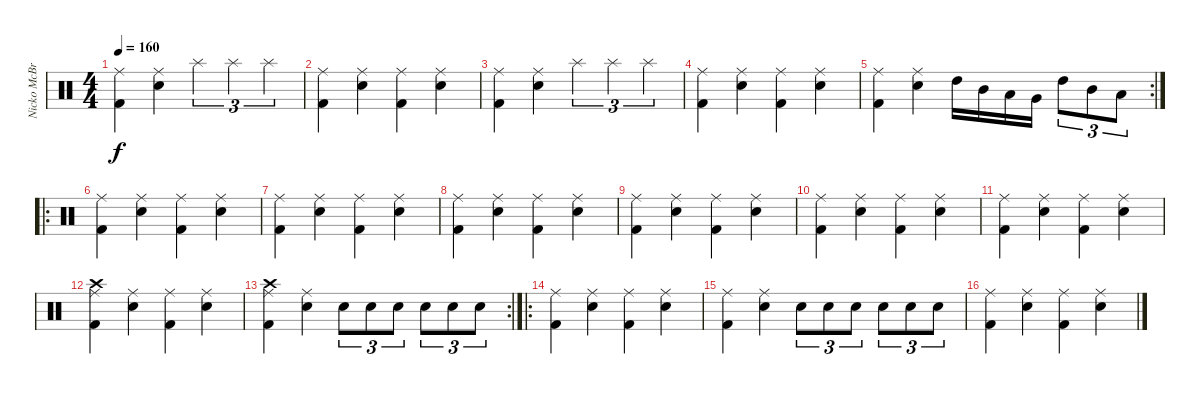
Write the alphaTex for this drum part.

\track ("Nicko McBrain" "Nicko McBr") {instrument percussion}
\staff {score}
\articulation defaults
\ts (4 4)
\tempo 160
\clef neutral
\ks c
("Ride (middle)" "Kick (hit) 2").4{dy f} ("Ride (middle)" "Snare (hit) 2").4 "Splash (hit)".4{tu (3 2)} "Splash (hit)".4{tu (3 2)} "Splash (hit)".4{tu (3 2)} |
("Ride (middle)" "Kick (hit) 2").4 ("Ride (middle)" "Snare (hit) 2").4 ("Ride (middle)" "Kick (hit) 2").4 ("Ride (middle)" "Snare (hit) 2").4 |
("Ride (middle)" "Kick (hit) 2").4 ("Ride (middle)" "Snare (hit) 2").4 "Splash (hit)".4{tu (3 2)} "Splash (hit)".4{tu (3 2)} "Splash (hit)".4{tu (3 2)} |
("Ride (middle)" "Kick (hit) 2").4 ("Ride (middle)" "Snare (hit) 2").4 ("Ride (middle)" "Kick (hit) 2").4 ("Ride (middle)" "Snare (hit) 2").4 |
\rc 2
("Ride (middle)" "Kick (hit) 2").4 ("Ride (middle)" "Snare (hit) 2").4 "High Tom (hit)".16 "Mid Tom (hit)".16 "Low Tom (hit)".16 "Very Low Tom (hit)".16 "High Tom (hit)".8{tu (3 2)} "Mid Tom (hit)".8{tu (3 2)} "Low Tom (hit)".8{tu (3 2)} |
\ro
("Ride (middle)" "Kick (hit) 2").4 ("Ride (middle)" "Snare (hit) 2").4 ("Ride (middle)" "Kick (hit) 2").4 ("Ride (middle)" "Snare (hit) 2").4 |
("Ride (middle)" "Kick (hit) 2").4 ("Ride (middle)" "Snare (hit) 2").4 ("Ride (middle)" "Kick (hit) 2").4 ("Ride (middle)" "Snare (hit) 2").4 |
("Ride (middle)" "Kick (hit) 2").4 ("Ride (middle)" "Snare (hit) 2").4 ("Ride (middle)" "Kick (hit) 2").4 ("Ride (middle)" "Snare (hit) 2").4 |
("Ride (middle)" "Kick (hit) 2").4 ("Ride (middle)" "Snare (hit) 2").4 ("Ride (middle)" "Kick (hit) 2").4 ("Ride (middle)" "Snare (hit) 2").4 |
("Ride (middle)" "Kick (hit) 2").4 ("Ride (middle)" "Snare (hit) 2").4 ("Ride (middle)" "Kick (hit) 2").4 ("Ride (middle)" "Snare (hit) 2").4 |
("Ride (middle)" "Kick (hit) 2").4 ("Ride (middle)" "Snare (hit) 2").4 ("Ride (middle)" "Kick (hit) 2").4 ("Ride (middle)" "Snare (hit) 2").4 |
("Ride (middle)" "Kick (hit) 2" "Crash high (hit)").4 ("Ride (middle)" "Snare (hit) 2").4 ("Ride (middle)" "Kick (hit) 2").4 ("Ride (middle)" "Snare (hit) 2").4 |
\rc 2
("Ride (middle)" "Kick (hit) 2" "Crash high (hit)").4 ("Ride (middle)" "Snare (hit) 2").4 "Snare (hit) 2".8{tu (3 2)} "Snare (hit) 2".8{tu (3 2)} "Snare (hit) 2".8{tu (3 2)} "Snare (hit) 2".8{tu (3 2)} "Snare (hit) 2".8{tu (3 2)} "Snare (hit) 2".8{tu (3 2)} |
\ro
("Ride (middle)" "Kick (hit) 2").4 ("Ride (middle)" "Snare (hit) 2").4 ("Ride (middle)" "Kick (hit) 2").4 ("Ride (middle)" "Snare (hit) 2").4 |
("Ride (middle)" "Kick (hit) 2").4 ("Ride (middle)" "Snare (hit) 2").4 "Snare (hit) 2".8{tu (3 2)} "Snare (hit) 2".8{tu (3 2)} "Snare (hit) 2".8{tu (3 2)} "Snare (hit) 2".8{tu (3 2)} "Snare (hit) 2".8{tu (3 2)} "Snare (hit) 2".8{tu (3 2)} |
("Ride (middle)" "Kick (hit) 2").4 ("Ride (middle)" "Snare (hit) 2").4 ("Ride (middle)" "Kick (hit) 2").4 ("Ride (middle)" "Snare (hit) 2").4
